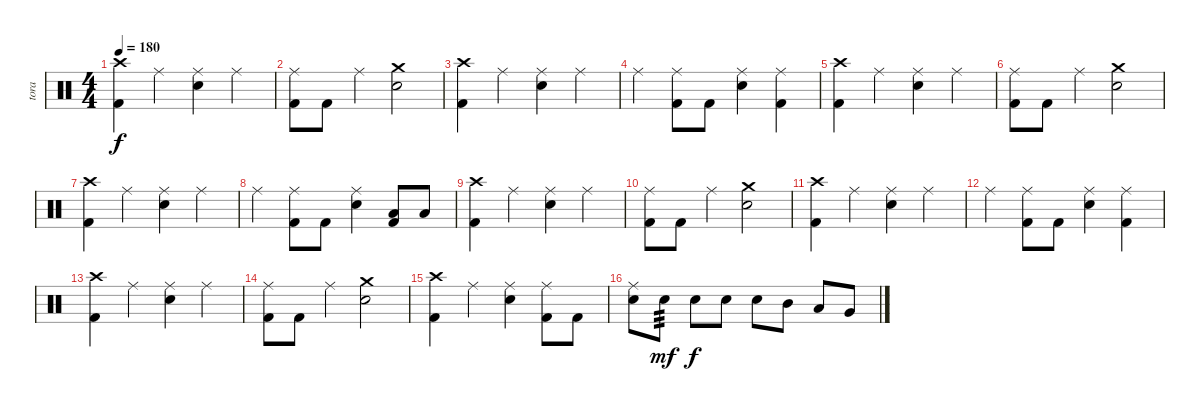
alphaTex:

\track ("tora" "tora") {instrument percussion}
\staff {score}
\articulation defaults
\ts (4 4)
\tempo 180
\clef neutral
\ks c
("Crash high (hit)" "Kick (hit) 2").4{dy f} "Ride (middle)".4 ("Ride (middle)" "Snare (hit) 2").4 "Ride (middle)".4 |
("Ride (middle)" "Kick (hit) 2").8 "Kick (hit) 2".8 "Ride (middle)".4 ("Crash medium (hit)" "Snare (hit) 2").2 |
("Crash high (hit)" "Kick (hit) 2").4 "Ride (middle)".4 ("Ride (middle)" "Snare (hit) 2").4 "Ride (middle)".4 |
"Ride (middle)".4 ("Ride (middle)" "Kick (hit) 2").8 "Kick (hit) 2".8 ("Ride (middle)" "Snare (hit) 2").4 ("Ride (middle)" "Kick (hit) 2").4 |
("Crash high (hit)" "Kick (hit) 2").4 "Ride (middle)".4 ("Ride (middle)" "Snare (hit) 2").4 "Ride (middle)".4 |
("Ride (middle)" "Kick (hit) 2").8 "Kick (hit) 2".8 "Ride (middle)".4 ("Crash medium (hit)" "Snare (hit) 2").2 |
("Crash high (hit)" "Kick (hit) 2").4 "Ride (middle)".4 ("Ride (middle)" "Snare (hit) 2").4 "Ride (middle)".4 |
"Ride (middle)".4 ("Ride (middle)" "Kick (hit) 2").8 "Kick (hit) 2".8 ("Ride (middle)" "Snare (hit) 2").4 ("Low Floor Tom (hit)" "Kick (hit) 2").8 "Low Floor Tom (hit)".8 |
("Crash high (hit)" "Kick (hit) 2").4 "Ride (middle)".4 ("Ride (middle)" "Snare (hit) 2").4 "Ride (middle)".4 |
("Ride (middle)" "Kick (hit) 2").8 "Kick (hit) 2".8 "Ride (middle)".4 ("Crash medium (hit)" "Snare (hit) 2").2 |
("Crash high (hit)" "Kick (hit) 2").4 "Ride (middle)".4 ("Ride (middle)" "Snare (hit) 2").4 "Ride (middle)".4 |
"Ride (middle)".4 ("Ride (middle)" "Kick (hit) 2").8 "Kick (hit) 2".8 ("Ride (middle)" "Snare (hit) 2").4 ("Ride (middle)" "Kick (hit) 2").4 |
("Crash high (hit)" "Kick (hit) 2").4 "Ride (middle)".4 ("Ride (middle)" "Snare (hit) 2").4 "Ride (middle)".4 |
("Ride (middle)" "Kick (hit) 2").8 "Kick (hit) 2".8 "Ride (middle)".4 ("Crash medium (hit)" "Snare (hit) 2").2 |
("Crash high (hit)" "Kick (hit) 2").4 "Ride (middle)".4 ("Ride (middle)" "Snare (hit) 2").4 ("Ride (middle)" "Kick (hit) 2").8 "Kick (hit) 2".8 |
("Ride (middle)" "Snare (hit) 2").8 "Snare (hit) 2".8{tp 3 dy mf} "Snare (hit) 2".8{dy f} "Snare (hit) 2".8 "Snare (hit) 2".8 "Mid Tom (hit)".8 "Low Tom (hit)".8 "Very Low Tom (hit)".8
